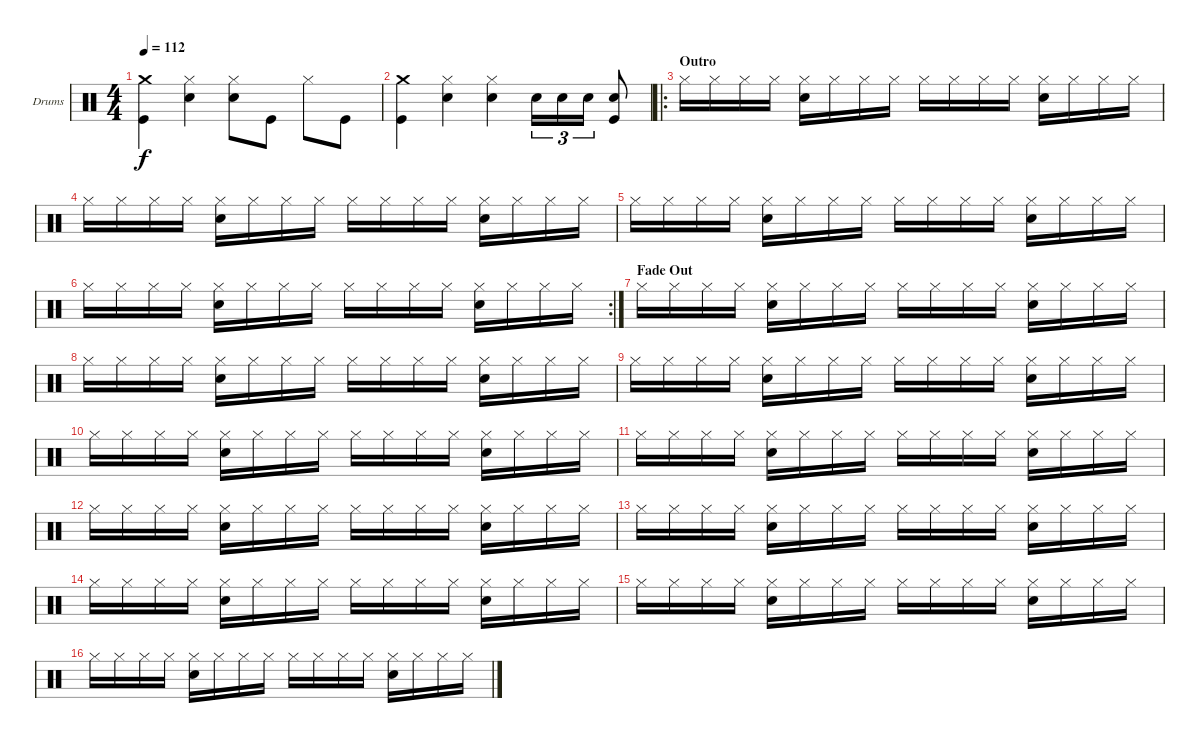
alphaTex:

\defaultSystemsLayout 4
\bracketExtendMode groupsimilarinstruments
\firstSystemTrackNameOrientation horizontal
\otherSystemsTrackNameOrientation horizontal
\track ("Drumkit" "Drums") {instrument percussion}
\staff {score}
\articulation defaults
\ts (4 4)
\tempo 112
\clef neutral
\ks c
("Crash medium (hit)" "Kick (hit)").4{dy f} ("Hi-Hat (closed)" "Snare (hit) 2").4 ("Hi-Hat (closed)" "Snare (hit) 2").8 "Kick (hit)".8 "Hi-Hat (closed)".8 "Kick (hit)".8 |
("Crash medium (hit)" "Kick (hit)").4 ("Hi-Hat (closed)" "Snare (hit) 2").4 ("Hi-Hat (closed)" "Snare (hit) 2").4 "Snare (hit) 2".16{tu (3 2)} "Snare (hit) 2".16{tu (3 2)} "Snare (hit) 2".16{tu (3 2)} ("Snare (hit) 2" "Kick (hit)").8 |
\ro
\section ("" "Outro")
"Hi-Hat (closed)".16 "Hi-Hat (closed)".16 "Hi-Hat (closed)".16 "Hi-Hat (closed)".16 ("Hi-Hat (closed)" "Snare (hit) 2").16 "Hi-Hat (closed)".16 "Hi-Hat (closed)".16 "Hi-Hat (closed)".16 "Hi-Hat (closed)".16 "Hi-Hat (closed)".16 "Hi-Hat (closed)".16 "Hi-Hat (closed)".16 ("Hi-Hat (closed)" "Snare (hit) 2").16 "Hi-Hat (closed)".16 "Hi-Hat (closed)".16 "Hi-Hat (closed)".16 |
"Hi-Hat (closed)".16 "Hi-Hat (closed)".16 "Hi-Hat (closed)".16 "Hi-Hat (closed)".16 ("Hi-Hat (closed)" "Snare (hit) 2").16 "Hi-Hat (closed)".16 "Hi-Hat (closed)".16 "Hi-Hat (closed)".16 "Hi-Hat (closed)".16 "Hi-Hat (closed)".16 "Hi-Hat (closed)".16 "Hi-Hat (closed)".16 ("Hi-Hat (closed)" "Snare (hit) 2").16 "Hi-Hat (closed)".16 "Hi-Hat (closed)".16 "Hi-Hat (closed)".16 |
"Hi-Hat (closed)".16 "Hi-Hat (closed)".16 "Hi-Hat (closed)".16 "Hi-Hat (closed)".16 ("Hi-Hat (closed)" "Snare (hit) 2").16 "Hi-Hat (closed)".16 "Hi-Hat (closed)".16 "Hi-Hat (closed)".16 "Hi-Hat (closed)".16 "Hi-Hat (closed)".16 "Hi-Hat (closed)".16 "Hi-Hat (closed)".16 ("Hi-Hat (closed)" "Snare (hit) 2").16 "Hi-Hat (closed)".16 "Hi-Hat (closed)".16 "Hi-Hat (closed)".16 |
\rc 2 "Hi-Hat (closed)".16 "Hi-Hat (closed)".16 "Hi-Hat (closed)".16 "Hi-Hat (closed)".16
("Hi-Hat (closed)" "Snare (hit) 2").16 "Hi-Hat (closed)".16 "Hi-Hat (closed)".16 "Hi-Hat (closed)".16 "Hi-Hat (closed)".16 "Hi-Hat (closed)".16 "Hi-Hat (closed)".16 "Hi-Hat (closed)".16 ("Hi-Hat (closed)" "Snare (hit) 2").16 "Hi-Hat (closed)".16 "Hi-Hat (closed)".16 "Hi-Hat (closed)".16 |
\section ("" "Fade Out")
"Hi-Hat (closed)".16 "Hi-Hat (closed)".16 "Hi-Hat (closed)".16 "Hi-Hat (closed)".16 ("Hi-Hat (closed)" "Snare (hit) 2").16 "Hi-Hat (closed)".16 "Hi-Hat (closed)".16 "Hi-Hat (closed)".16 "Hi-Hat (closed)".16 "Hi-Hat (closed)".16 "Hi-Hat (closed)".16 "Hi-Hat (closed)".16 ("Hi-Hat (closed)" "Snare (hit) 2").16 "Hi-Hat (closed)".16 "Hi-Hat (closed)".16 "Hi-Hat (closed)".16 |
"Hi-Hat (closed)".16 "Hi-Hat (closed)".16 "Hi-Hat (closed)".16 "Hi-Hat (closed)".16 ("Hi-Hat (closed)" "Snare (hit) 2").16 "Hi-Hat (closed)".16 "Hi-Hat (closed)".16 "Hi-Hat (closed)".16 "Hi-Hat (closed)".16 "Hi-Hat (closed)".16 "Hi-Hat (closed)".16 "Hi-Hat (closed)".16 ("Hi-Hat (closed)" "Snare (hit) 2").16 "Hi-Hat (closed)".16 "Hi-Hat (closed)".16 "Hi-Hat (closed)".16 |
"Hi-Hat (closed)".16 "Hi-Hat (closed)".16 "Hi-Hat (closed)".16 "Hi-Hat (closed)".16 ("Hi-Hat (closed)" "Snare (hit) 2").16 "Hi-Hat (closed)".16 "Hi-Hat (closed)".16 "Hi-Hat (closed)".16 "Hi-Hat (closed)".16 "Hi-Hat (closed)".16 "Hi-Hat (closed)".16 "Hi-Hat (closed)".16 ("Hi-Hat (closed)" "Snare (hit) 2").16 "Hi-Hat (closed)".16 "Hi-Hat (closed)".16 "Hi-Hat (closed)".16 |
"Hi-Hat (closed)".16 "Hi-Hat (closed)".16 "Hi-Hat (closed)".16 "Hi-Hat (closed)".16 ("Hi-Hat (closed)" "Snare (hit) 2").16 "Hi-Hat (closed)".16 "Hi-Hat (closed)".16 "Hi-Hat (closed)".16 "Hi-Hat (closed)".16 "Hi-Hat (closed)".16 "Hi-Hat (closed)".16 "Hi-Hat (closed)".16 ("Hi-Hat (closed)" "Snare (hit) 2").16 "Hi-Hat (closed)".16 "Hi-Hat (closed)".16 "Hi-Hat (closed)".16 |
"Hi-Hat (closed)".16 "Hi-Hat (closed)".16 "Hi-Hat (closed)".16 "Hi-Hat (closed)".16 ("Hi-Hat (closed)" "Snare (hit) 2").16 "Hi-Hat (closed)".16 "Hi-Hat (closed)".16 "Hi-Hat (closed)".16 "Hi-Hat (closed)".16 "Hi-Hat (closed)".16 "Hi-Hat (closed)".16 "Hi-Hat (closed)".16 ("Hi-Hat (closed)" "Snare (hit) 2").16 "Hi-Hat (closed)".16 "Hi-Hat (closed)".16 "Hi-Hat (closed)".16 |
"Hi-Hat (closed)".16 "Hi-Hat (closed)".16 "Hi-Hat (closed)".16 "Hi-Hat (closed)".16 ("Hi-Hat (closed)" "Snare (hit) 2").16 "Hi-Hat (closed)".16 "Hi-Hat (closed)".16 "Hi-Hat (closed)".16 "Hi-Hat (closed)".16 "Hi-Hat (closed)".16 "Hi-Hat (closed)".16 "Hi-Hat (closed)".16 ("Hi-Hat (closed)" "Snare (hit) 2").16 "Hi-Hat (closed)".16 "Hi-Hat (closed)".16 "Hi-Hat (closed)".16 |
"Hi-Hat (closed)".16 "Hi-Hat (closed)".16 "Hi-Hat (closed)".16 "Hi-Hat (closed)".16 ("Hi-Hat (closed)" "Snare (hit) 2").16 "Hi-Hat (closed)".16 "Hi-Hat (closed)".16 "Hi-Hat (closed)".16 "Hi-Hat (closed)".16 "Hi-Hat (closed)".16 "Hi-Hat (closed)".16 "Hi-Hat (closed)".16 ("Hi-Hat (closed)" "Snare (hit) 2").16 "Hi-Hat (closed)".16 "Hi-Hat (closed)".16 "Hi-Hat (closed)".16 |
"Hi-Hat (closed)".16 "Hi-Hat (closed)".16 "Hi-Hat (closed)".16 "Hi-Hat (closed)".16 ("Hi-Hat (closed)" "Snare (hit) 2").16 "Hi-Hat (closed)".16 "Hi-Hat (closed)".16 "Hi-Hat (closed)".16 "Hi-Hat (closed)".16 "Hi-Hat (closed)".16 "Hi-Hat (closed)".16 "Hi-Hat (closed)".16 ("Hi-Hat (closed)" "Snare (hit) 2").16 "Hi-Hat (closed)".16 "Hi-Hat (closed)".16 "Hi-Hat (closed)".16 |
"Hi-Hat (closed)".16 "Hi-Hat (closed)".16 "Hi-Hat (closed)".16 "Hi-Hat (closed)".16 ("Hi-Hat (closed)" "Snare (hit) 2").16 "Hi-Hat (closed)".16 "Hi-Hat (closed)".16 "Hi-Hat (closed)".16 "Hi-Hat (closed)".16 "Hi-Hat (closed)".16 "Hi-Hat (closed)".16 "Hi-Hat (closed)".16 ("Hi-Hat (closed)" "Snare (hit) 2").16 "Hi-Hat (closed)".16 "Hi-Hat (closed)".16 "Hi-Hat (closed)".16 |
"Hi-Hat (closed)".16 "Hi-Hat (closed)".16 "Hi-Hat (closed)".16 "Hi-Hat (closed)".16 ("Hi-Hat (closed)" "Snare (hit) 2").16 "Hi-Hat (closed)".16 "Hi-Hat (closed)".16 "Hi-Hat (closed)".16 "Hi-Hat (closed)".16 "Hi-Hat (closed)".16 "Hi-Hat (closed)".16 "Hi-Hat (closed)".16 ("Hi-Hat (closed)" "Snare (hit) 2").16 "Hi-Hat (closed)".16 "Hi-Hat (closed)".16 "Hi-Hat (closed)".16
